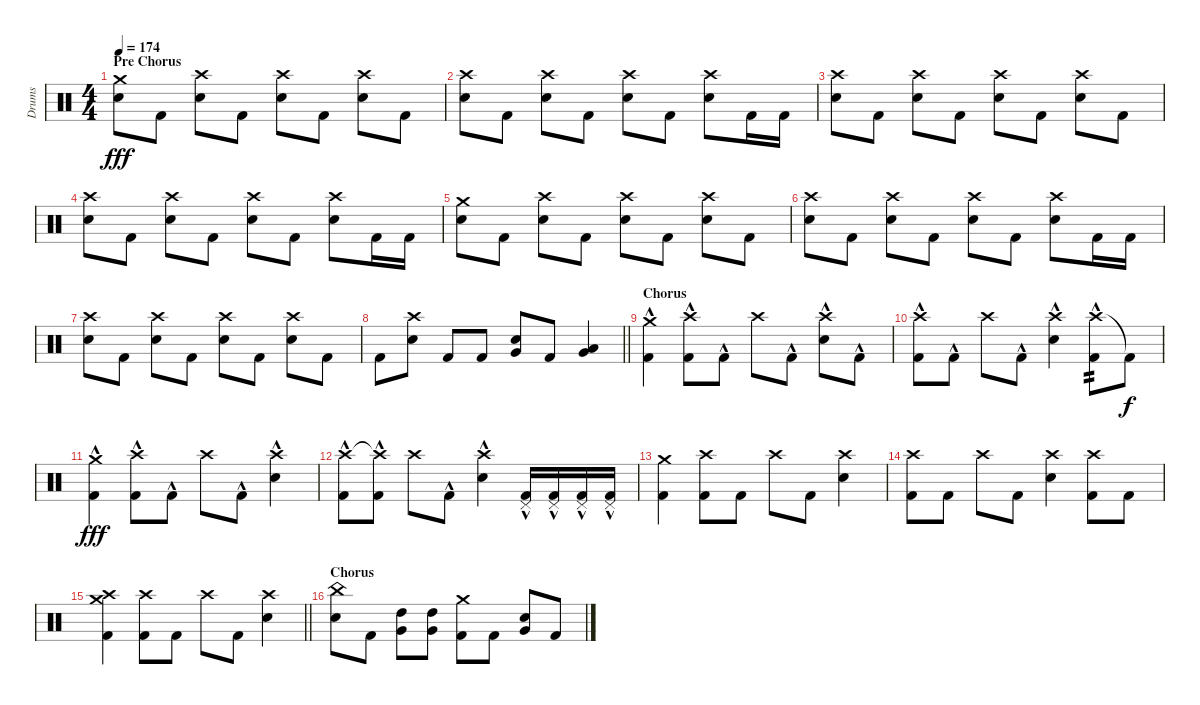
\track ("Drums" "Drums") {instrument percussion}
\staff {score}
\articulation defaults
\ts (4 4)
\section ("" "Pre Chorus")
\tempo 174
\clef neutral
\ks c
("Crash medium (hit)" "Snare (hit) 2").8{dy fff} "Kick (hit) 2".8 ("Crash high (hit)" "Snare (hit) 2").8 "Kick (hit) 2".8 ("Crash high (hit)" "Snare (hit) 2").8 "Kick (hit) 2".8 ("Crash high (hit)" "Snare (hit) 2").8 "Kick (hit) 2".8 |
("Crash high (hit)" "Snare (hit) 2").8 "Kick (hit) 2".8 ("Crash high (hit)" "Snare (hit) 2").8 "Kick (hit) 2".8 ("Crash high (hit)" "Snare (hit) 2").8 "Kick (hit) 2".8 ("Crash high (hit)" "Snare (hit) 2").8 "Kick (hit) 2".16 "Kick (hit) 2".16 |
("Crash high (hit)" "Snare (hit) 2").8 "Kick (hit) 2".8 ("Crash high (hit)" "Snare (hit) 2").8 "Kick (hit) 2".8 ("Crash high (hit)" "Snare (hit) 2").8 "Kick (hit) 2".8 ("Crash high (hit)" "Snare (hit) 2").8 "Kick (hit) 2".8 |
("Crash high (hit)" "Snare (hit) 2").8 "Kick (hit) 2".8 ("Crash high (hit)" "Snare (hit) 2").8 "Kick (hit) 2".8 ("Crash high (hit)" "Snare (hit) 2").8 "Kick (hit) 2".8 ("Crash high (hit)" "Snare (hit) 2").8 "Kick (hit) 2".16 "Kick (hit) 2".16 |
("Crash medium (hit)" "Snare (hit) 2").8 "Kick (hit) 2".8 ("Crash high (hit)" "Snare (hit) 2").8 "Kick (hit) 2".8 ("Crash high (hit)" "Snare (hit) 2").8 "Kick (hit) 2".8 ("Crash high (hit)" "Snare (hit) 2").8 "Kick (hit) 2".8 |
("Crash high (hit)" "Snare (hit) 2").8 "Kick (hit) 2".8 ("Crash high (hit)" "Snare (hit) 2").8 "Kick (hit) 2".8 ("Crash high (hit)" "Snare (hit) 2").8 "Kick (hit) 2".8 ("Crash high (hit)" "Snare (hit) 2").8 "Kick (hit) 2".16 "Kick (hit) 2".16 |
("Crash high (hit)" "Snare (hit) 2").8 "Kick (hit) 2".8 ("Crash high (hit)" "Snare (hit) 2").8 "Kick (hit) 2".8 ("Crash high (hit)" "Snare (hit) 2").8 "Kick (hit) 2".8 ("Crash high (hit)" "Snare (hit) 2").8 "Kick (hit) 2".8 |
\barLineRight lightlight "Kick (hit) 2".8
("Crash high (hit)" "Snare (hit) 2").8 "Kick (hit) 2".8 "Kick (hit) 2".8 ("Snare (hit) 2" "Very Low Tom (hit)").8 "Kick (hit) 2".8 ("Low Tom (hit)" "Very Low Tom (hit)").4 |
\section ("" "Chorus")
("Crash medium (hit)" "Kick (hit) 2"{hac}).4 ("Crash high (hit)" "Kick (hit) 2"{hac}).8 "Kick (hit) 2"{hac}.8 "Crash high (hit)".8 "Kick (hit) 2"{hac}.8 ("Crash high (hit)" "Snare (hit) 2"{hac}).8 "Kick (hit) 2"{hac}.8 |
("Crash high (hit)" "Kick (hit) 2"{hac}).8 "Kick (hit) 2"{hac}.8 "Crash high (hit)".8 "Kick (hit) 2"{hac}.8 ("Crash high (hit)" "Snare (hit) 2"{hac}).4 ("Crash high (hit)" "Kick (hit) 2"{hac}).8{tp 2} "Kick (hit) 2"{t}.8{dy f} |
("Crash medium (hit)" "Kick (hit) 2"{hac}).4{dy fff} ("Crash high (hit)" "Kick (hit) 2"{hac}).8 "Kick (hit) 2"{hac}.8 "Crash high (hit)".8 "Kick (hit) 2"{hac}.8 ("Crash high (hit)" "Snare (hit) 2"{hac}).4 |
("Crash high (hit)" "Kick (hit) 2"{hac}).8 ("Crash high (hit)"{t} "Kick (hit) 2"{hac}).8 "Crash high (hit)".8 "Kick (hit) 2"{hac}.8 ("Crash high (hit)" "Snare (hit) 2"{hac}).4 ("Pedal Hi-Hat (hit)" "Kick (hit) 2"{hac}).16 ("Pedal Hi-Hat (hit)" "Kick (hit) 2"{hac}).16 ("Pedal Hi-Hat (hit)" "Kick (hit) 2"{hac}).16 ("Pedal Hi-Hat (hit)" "Kick (hit) 2"{hac}).16 |
("Crash medium (hit)" "Kick (hit) 2").4 ("Crash high (hit)" "Kick (hit) 2").8 "Kick (hit) 2".8 "Crash high (hit)".8 "Kick (hit) 2".8 ("Crash high (hit)" "Snare (hit) 2").4 |
("Crash high (hit)" "Kick (hit) 2").8 "Kick (hit) 2".8 "Crash high (hit)".8 "Kick (hit) 2".8 ("Crash high (hit)" "Snare (hit) 2").4 ("Crash high (hit)" "Kick (hit) 2").8 "Kick (hit) 2".8 |
\barLineRight lightlight
("Crash medium (hit)" "Crash high (hit)" "Kick (hit) 2").4 ("Crash high (hit)" "Kick (hit) 2").8 "Kick (hit) 2".8 "Crash high (hit)".8 "Kick (hit) 2".8 ("Crash high (hit)" "Snare (hit) 2").4 |
\section ("" "Chorus")
("China (hit)" "Snare (hit) 2").8 "Kick (hit) 2".8 ("High Tom (hit)" "Very Low Tom (hit)").8 ("High Tom (hit)" "Very Low Tom (hit)").8 ("Crash medium (hit)" "Kick (hit) 2").8 "Kick (hit) 2".8 ("Snare (hit) 2" "Very Low Tom (hit)").8 "Kick (hit) 2".8
